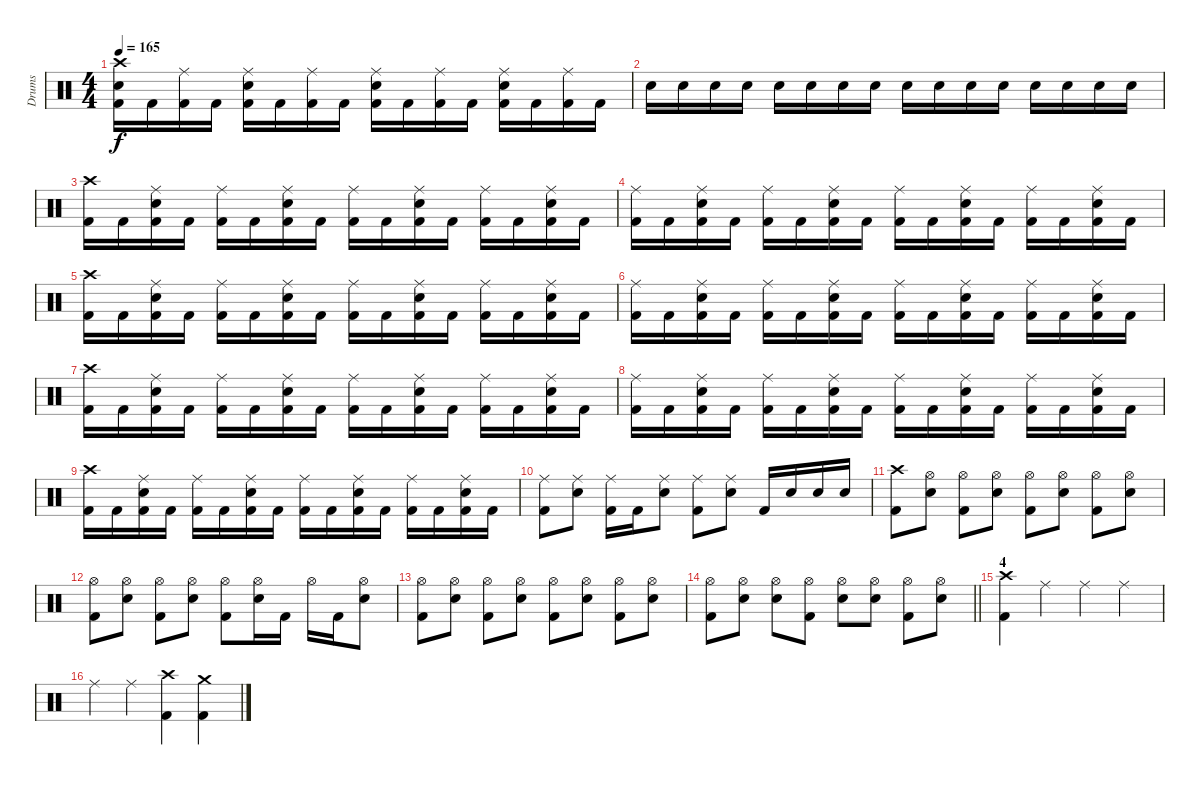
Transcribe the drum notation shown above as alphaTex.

\track ("Drums" "Drums") {instrument percussion}
\staff {score}
\articulation defaults
\ts (4 4)
\tempo 165
\clef neutral
\ks c
("Crash high (hit)" "Electric Snare (hit)" "Kick (hit) 2").16{dy f} "Kick (hit) 2".16 ("Ride (middle)" "Kick (hit) 2").16 "Kick (hit) 2".16 ("Ride (middle)" "Electric Snare (hit)" "Kick (hit) 2").16 "Kick (hit) 2".16 ("Ride (middle)" "Kick (hit) 2").16 "Kick (hit) 2".16 ("Ride (middle)" "Electric Snare (hit)" "Kick (hit) 2").16 "Kick (hit) 2".16 ("Ride (middle)" "Kick (hit) 2").16 "Kick (hit) 2".16 ("Ride (middle)" "Electric Snare (hit)" "Kick (hit) 2").16 "Kick (hit) 2".16 ("Ride (middle)" "Kick (hit) 2").16 "Kick (hit) 2".16 |
"Electric Snare (hit)".16 "Electric Snare (hit)".16 "Electric Snare (hit)".16 "Electric Snare (hit)".16 "Electric Snare (hit)".16 "Electric Snare (hit)".16 "Electric Snare (hit)".16 "Electric Snare (hit)".16 "Electric Snare (hit)".16 "Electric Snare (hit)".16 "Electric Snare (hit)".16 "Electric Snare (hit)".16 "Electric Snare (hit)".16 "Electric Snare (hit)".16 "Electric Snare (hit)".16 "Electric Snare (hit)".16 |
("Crash high (hit)" "Kick (hit) 2").16 "Kick (hit) 2".16 ("Ride (middle)" "Electric Snare (hit)" "Kick (hit) 2").16 "Kick (hit) 2".16 ("Ride (middle)" "Kick (hit) 2").16 "Kick (hit) 2".16 ("Ride (middle)" "Electric Snare (hit)" "Kick (hit) 2").16 "Kick (hit) 2".16 ("Ride (middle)" "Kick (hit) 2").16 "Kick (hit) 2".16 ("Ride (middle)" "Electric Snare (hit)" "Kick (hit) 2").16 "Kick (hit) 2".16 ("Ride (middle)" "Kick (hit) 2").16 "Kick (hit) 2".16 ("Ride (middle)" "Electric Snare (hit)" "Kick (hit) 2").16 "Kick (hit) 2".16 |
("Ride (middle)" "Kick (hit) 2").16 "Kick (hit) 2".16 ("Ride (middle)" "Electric Snare (hit)" "Kick (hit) 2").16 "Kick (hit) 2".16 ("Ride (middle)" "Kick (hit) 2").16 "Kick (hit) 2".16 ("Ride (middle)" "Electric Snare (hit)" "Kick (hit) 2").16 "Kick (hit) 2".16 ("Ride (middle)" "Kick (hit) 2").16 "Kick (hit) 2".16 ("Ride (middle)" "Electric Snare (hit)" "Kick (hit) 2").16 "Kick (hit) 2".16 ("Ride (middle)" "Kick (hit) 2").16 "Kick (hit) 2".16 ("Ride (middle)" "Electric Snare (hit)" "Kick (hit) 2").16 "Kick (hit) 2".16 |
("Crash high (hit)" "Kick (hit) 2").16 "Kick (hit) 2".16 ("Ride (middle)" "Electric Snare (hit)" "Kick (hit) 2").16 "Kick (hit) 2".16 ("Ride (middle)" "Kick (hit) 2").16 "Kick (hit) 2".16 ("Ride (middle)" "Electric Snare (hit)" "Kick (hit) 2").16 "Kick (hit) 2".16 ("Ride (middle)" "Kick (hit) 2").16 "Kick (hit) 2".16 ("Ride (middle)" "Electric Snare (hit)" "Kick (hit) 2").16 "Kick (hit) 2".16 ("Ride (middle)" "Kick (hit) 2").16 "Kick (hit) 2".16 ("Ride (middle)" "Electric Snare (hit)" "Kick (hit) 2").16 "Kick (hit) 2".16 |
("Ride (middle)" "Kick (hit) 2").16 "Kick (hit) 2".16 ("Ride (middle)" "Electric Snare (hit)" "Kick (hit) 2").16 "Kick (hit) 2".16 ("Ride (middle)" "Kick (hit) 2").16 "Kick (hit) 2".16 ("Ride (middle)" "Electric Snare (hit)" "Kick (hit) 2").16 "Kick (hit) 2".16 ("Ride (middle)" "Kick (hit) 2").16 "Kick (hit) 2".16 ("Ride (middle)" "Electric Snare (hit)" "Kick (hit) 2").16 "Kick (hit) 2".16 ("Ride (middle)" "Kick (hit) 2").16 "Kick (hit) 2".16 ("Ride (middle)" "Electric Snare (hit)" "Kick (hit) 2").16 "Kick (hit) 2".16 |
("Crash high (hit)" "Kick (hit) 2").16 "Kick (hit) 2".16 ("Ride (middle)" "Electric Snare (hit)" "Kick (hit) 2").16 "Kick (hit) 2".16 ("Ride (middle)" "Kick (hit) 2").16 "Kick (hit) 2".16 ("Ride (middle)" "Electric Snare (hit)" "Kick (hit) 2").16 "Kick (hit) 2".16 ("Ride (middle)" "Kick (hit) 2").16 "Kick (hit) 2".16 ("Ride (middle)" "Electric Snare (hit)" "Kick (hit) 2").16 "Kick (hit) 2".16 ("Ride (middle)" "Kick (hit) 2").16 "Kick (hit) 2".16 ("Ride (middle)" "Electric Snare (hit)" "Kick (hit) 2").16 "Kick (hit) 2".16 |
("Ride (middle)" "Kick (hit) 2").16 "Kick (hit) 2".16 ("Ride (middle)" "Electric Snare (hit)" "Kick (hit) 2").16 "Kick (hit) 2".16 ("Ride (middle)" "Kick (hit) 2").16 "Kick (hit) 2".16 ("Ride (middle)" "Electric Snare (hit)" "Kick (hit) 2").16 "Kick (hit) 2".16 ("Ride (middle)" "Kick (hit) 2").16 "Kick (hit) 2".16 ("Ride (middle)" "Electric Snare (hit)" "Kick (hit) 2").16 "Kick (hit) 2".16 ("Ride (middle)" "Kick (hit) 2").16 "Kick (hit) 2".16 ("Ride (middle)" "Electric Snare (hit)" "Kick (hit) 2").16 "Kick (hit) 2".16 |
("Crash high (hit)" "Kick (hit) 2").16 "Kick (hit) 2".16 ("Ride (middle)" "Electric Snare (hit)" "Kick (hit) 2").16 "Kick (hit) 2".16 ("Ride (middle)" "Kick (hit) 2").16 "Kick (hit) 2".16 ("Ride (middle)" "Electric Snare (hit)" "Kick (hit) 2").16 "Kick (hit) 2".16 ("Ride (middle)" "Kick (hit) 2").16 "Kick (hit) 2".16 ("Ride (middle)" "Electric Snare (hit)" "Kick (hit) 2").16 "Kick (hit) 2".16 ("Ride (middle)" "Kick (hit) 2").16 "Kick (hit) 2".16 ("Ride (middle)" "Electric Snare (hit)" "Kick (hit) 2").16 "Kick (hit) 2".16 |
("Ride (middle)" "Kick (hit) 2").8 ("Ride (middle)" "Electric Snare (hit)").8 ("Ride (middle)" "Kick (hit) 2").16 "Kick (hit) 2".16 ("Ride (middle)" "Electric Snare (hit)").8 ("Ride (middle)" "Kick (hit) 2").8 ("Ride (middle)" "Electric Snare (hit)").8 "Kick (hit) 2".16 "Electric Snare (hit)".16 "Electric Snare (hit)".16 "Electric Snare (hit)".16 |
("Crash high (hit)" "Kick (hit) 2").8 ("Hi-Hat (open)" "Electric Snare (hit)").8 ("Hi-Hat (open)" "Kick (hit) 2").8 ("Hi-Hat (open)" "Electric Snare (hit)").8 ("Hi-Hat (open)" "Kick (hit) 2").8 ("Hi-Hat (open)" "Electric Snare (hit)").8 ("Hi-Hat (open)" "Kick (hit) 2").8 ("Hi-Hat (open)" "Electric Snare (hit)").8 |
("Hi-Hat (open)" "Kick (hit) 2").8 ("Hi-Hat (open)" "Electric Snare (hit)").8 ("Hi-Hat (open)" "Kick (hit) 2").8 ("Hi-Hat (open)" "Electric Snare (hit)").8 ("Hi-Hat (open)" "Kick (hit) 2").8 ("Hi-Hat (open)" "Electric Snare (hit)").16 "Kick (hit) 2".16 "Hi-Hat (open)".16 "Kick (hit) 2".16 ("Hi-Hat (open)" "Electric Snare (hit)").8 |
("Hi-Hat (open)" "Kick (hit) 2").8 ("Hi-Hat (open)" "Electric Snare (hit)").8 ("Hi-Hat (open)" "Kick (hit) 2").8 ("Hi-Hat (open)" "Electric Snare (hit)").8 ("Hi-Hat (open)" "Kick (hit) 2").8 ("Hi-Hat (open)" "Electric Snare (hit)").8 ("Hi-Hat (open)" "Kick (hit) 2").8 ("Hi-Hat (open)" "Electric Snare (hit)").8 |
\barLineRight lightlight
("Hi-Hat (open)" "Kick (hit) 2").8 ("Hi-Hat (open)" "Electric Snare (hit)").8 ("Hi-Hat (open)" "Electric Snare (hit)").8 ("Hi-Hat (open)" "Kick (hit) 2").8 ("Hi-Hat (open)" "Electric Snare (hit)").8 ("Hi-Hat (open)" "Electric Snare (hit)").8 ("Hi-Hat (open)" "Kick (hit) 2").8 ("Hi-Hat (open)" "Electric Snare (hit)").8 |
\section ("" "4")
("Crash high (hit)" "Kick (hit) 2").4 "Ride (middle)".4 "Ride (middle)".4 "Ride (middle)".4 |
"Ride (middle)".4 "Ride (middle)".4 ("Crash high (hit)" "Kick (hit) 2").4 ("Crash medium (hit)" "Kick (hit) 2").4
